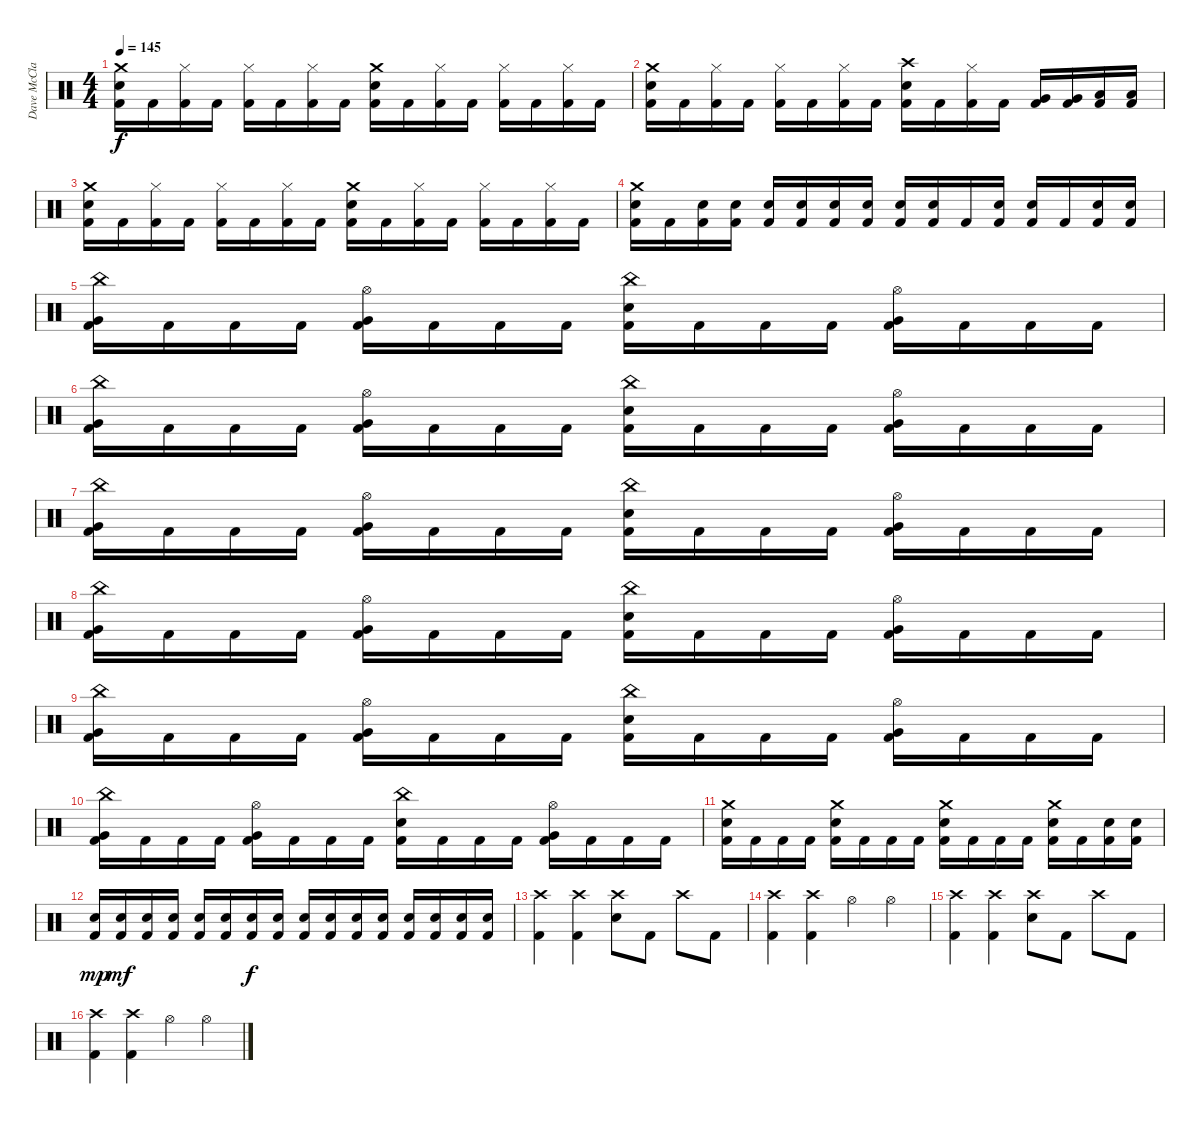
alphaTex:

\track ("Dave McClain" "Dave McCla") {instrument percussion}
\staff {score}
\articulation defaults
\ts (4 4)
\tempo 145
\clef neutral
\ks c
("Crash medium (hit)" "Snare (hit) 2" "Kick (hit) 2").16{dy f} "Kick (hit) 2".16 ("Hi-Hat (closed)" "Kick (hit) 2").16 "Kick (hit) 2".16 ("Hi-Hat (closed)" "Kick (hit) 2").16 "Kick (hit) 2".16 ("Hi-Hat (closed)" "Kick (hit) 2").16 "Kick (hit) 2".16 ("Crash medium (hit)" "Snare (hit) 2" "Kick (hit) 2").16 "Kick (hit) 2".16 ("Hi-Hat (closed)" "Kick (hit) 2").16 "Kick (hit) 2".16 ("Hi-Hat (closed)" "Kick (hit) 2").16 "Kick (hit) 2".16 ("Hi-Hat (closed)" "Kick (hit) 2").16 "Kick (hit) 2".16 |
("Crash medium (hit)" "Snare (hit) 2" "Kick (hit) 2").16 "Kick (hit) 2".16 ("Hi-Hat (closed)" "Kick (hit) 2").16 "Kick (hit) 2".16 ("Hi-Hat (closed)" "Kick (hit) 2").16 "Kick (hit) 2".16 ("Hi-Hat (closed)" "Kick (hit) 2").16 "Kick (hit) 2".16 ("Crash high (hit)" "Snare (hit) 2" "Kick (hit) 2").16 "Kick (hit) 2".16 ("Hi-Hat (closed)" "Kick (hit) 2").16 "Kick (hit) 2".16 ("Very Low Tom (hit)" "Kick (hit) 2").16 ("Very Low Tom (hit)" "Kick (hit) 2").16 ("Low Floor Tom (hit)" "Kick (hit) 2").16 ("Low Floor Tom (hit)" "Kick (hit) 2").16 |
("Crash medium (hit)" "Snare (hit) 2" "Kick (hit) 2").16 "Kick (hit) 2".16 ("Hi-Hat (closed)" "Kick (hit) 2").16 "Kick (hit) 2".16 ("Hi-Hat (closed)" "Kick (hit) 2").16 "Kick (hit) 2".16 ("Hi-Hat (closed)" "Kick (hit) 2").16 "Kick (hit) 2".16 ("Crash medium (hit)" "Snare (hit) 2" "Kick (hit) 2").16 "Kick (hit) 2".16 ("Hi-Hat (closed)" "Kick (hit) 2").16 "Kick (hit) 2".16 ("Hi-Hat (closed)" "Kick (hit) 2").16 "Kick (hit) 2".16 ("Hi-Hat (closed)" "Kick (hit) 2").16 "Kick (hit) 2".16 |
("Crash medium (hit)" "Snare (hit) 2" "Kick (hit) 2").16 "Kick (hit) 2".16 ("Snare (hit) 2" "Kick (hit) 2").16 ("Snare (hit) 2" "Kick (hit) 2").16 ("Snare (hit) 2" "Kick (hit) 2").16 ("Snare (hit) 2" "Kick (hit) 2").16 ("Snare (hit) 2" "Kick (hit) 2").16 ("Snare (hit) 2" "Kick (hit) 2").16 ("Snare (hit) 2" "Kick (hit) 2").16 ("Electric Snare (hit)" "Kick (hit) 2").16 "Kick (hit) 2".16 ("Electric Snare (hit)" "Kick (hit) 2").16 ("Snare (hit) 2" "Kick (hit) 2").16 "Kick (hit) 2".16 ("Snare (hit) 2" "Kick (hit) 2").16 ("Snare (hit) 2" "Kick (hit) 2").16 |
("China (hit)" "Very Low Tom (hit)" "Kick (hit) 2").16 "Kick (hit) 2".16 "Kick (hit) 2".16 "Kick (hit) 2".16 ("Hi-Hat (open)" "Very Low Tom (hit)" "Kick (hit) 2").16 "Kick (hit) 2".16 "Kick (hit) 2".16 "Kick (hit) 2".16 ("China (hit)" "Snare (hit) 2" "Kick (hit) 2").16 "Kick (hit) 2".16 "Kick (hit) 2".16 "Kick (hit) 2".16 ("Hi-Hat (open)" "Very Low Tom (hit)" "Kick (hit) 2").16 "Kick (hit) 2".16 "Kick (hit) 2".16 "Kick (hit) 2".16 |
("China (hit)" "Very Low Tom (hit)" "Kick (hit) 2").16 "Kick (hit) 2".16 "Kick (hit) 2".16 "Kick (hit) 2".16 ("Hi-Hat (open)" "Very Low Tom (hit)" "Kick (hit) 2").16 "Kick (hit) 2".16 "Kick (hit) 2".16 "Kick (hit) 2".16 ("China (hit)" "Snare (hit) 2" "Kick (hit) 2").16 "Kick (hit) 2".16 "Kick (hit) 2".16 "Kick (hit) 2".16 ("Hi-Hat (open)" "Very Low Tom (hit)" "Kick (hit) 2").16 "Kick (hit) 2".16 "Kick (hit) 2".16 "Kick (hit) 2".16 |
("China (hit)" "Very Low Tom (hit)" "Kick (hit) 2").16 "Kick (hit) 2".16 "Kick (hit) 2".16 "Kick (hit) 2".16 ("Hi-Hat (open)" "Very Low Tom (hit)" "Kick (hit) 2").16 "Kick (hit) 2".16 "Kick (hit) 2".16 "Kick (hit) 2".16 ("China (hit)" "Snare (hit) 2" "Kick (hit) 2").16 "Kick (hit) 2".16 "Kick (hit) 2".16 "Kick (hit) 2".16 ("Hi-Hat (open)" "Very Low Tom (hit)" "Kick (hit) 2").16 "Kick (hit) 2".16 "Kick (hit) 2".16 "Kick (hit) 2".16 |
("China (hit)" "Very Low Tom (hit)" "Kick (hit) 2").16 "Kick (hit) 2".16 "Kick (hit) 2".16 "Kick (hit) 2".16 ("Hi-Hat (open)" "Very Low Tom (hit)" "Kick (hit) 2").16 "Kick (hit) 2".16 "Kick (hit) 2".16 "Kick (hit) 2".16 ("China (hit)" "Snare (hit) 2" "Kick (hit) 2").16 "Kick (hit) 2".16 "Kick (hit) 2".16 "Kick (hit) 2".16 ("Hi-Hat (open)" "Very Low Tom (hit)" "Kick (hit) 2").16 "Kick (hit) 2".16 "Kick (hit) 2".16 "Kick (hit) 2".16 |
("China (hit)" "Very Low Tom (hit)" "Kick (hit) 2").16 "Kick (hit) 2".16 "Kick (hit) 2".16 "Kick (hit) 2".16 ("Hi-Hat (open)" "Very Low Tom (hit)" "Kick (hit) 2").16 "Kick (hit) 2".16 "Kick (hit) 2".16 "Kick (hit) 2".16 ("China (hit)" "Snare (hit) 2" "Kick (hit) 2").16 "Kick (hit) 2".16 "Kick (hit) 2".16 "Kick (hit) 2".16 ("Hi-Hat (open)" "Very Low Tom (hit)" "Kick (hit) 2").16 "Kick (hit) 2".16 "Kick (hit) 2".16 "Kick (hit) 2".16 |
("China (hit)" "Very Low Tom (hit)" "Kick (hit) 2").16 "Kick (hit) 2".16 "Kick (hit) 2".16 "Kick (hit) 2".16 ("Hi-Hat (open)" "Very Low Tom (hit)" "Kick (hit) 2").16 "Kick (hit) 2".16 "Kick (hit) 2".16 "Kick (hit) 2".16 ("China (hit)" "Snare (hit) 2" "Kick (hit) 2").16 "Kick (hit) 2".16 "Kick (hit) 2".16 "Kick (hit) 2".16 ("Hi-Hat (open)" "Very Low Tom (hit)" "Kick (hit) 2").16 "Kick (hit) 2".16 "Kick (hit) 2".16 "Kick (hit) 2".16 |
("Crash medium (hit)" "Snare (hit) 2" "Kick (hit) 2").16 "Kick (hit) 2".16 "Kick (hit) 2".16 "Kick (hit) 2".16 ("Crash medium (hit)" "Snare (hit) 2" "Kick (hit) 2").16 "Kick (hit) 2".16 "Kick (hit) 2".16 "Kick (hit) 2".16 ("Crash medium (hit)" "Snare (hit) 2" "Kick (hit) 2").16 "Kick (hit) 2".16 "Kick (hit) 2".16 "Kick (hit) 2".16 ("Crash medium (hit)" "Snare (hit) 2" "Kick (hit) 2").16 "Kick (hit) 2".16 ("Snare (hit) 2" "Kick (hit) 2").16 ("Snare (hit) 2" "Kick (hit) 2").16 |
("Electric Snare (hit)" "Kick (hit) 2").16{dy mp} ("Electric Snare (hit)" "Kick (hit) 2").16{dy mf} ("Electric Snare (hit)" "Kick (hit) 2").16 ("Electric Snare (hit)" "Kick (hit) 2").16 ("Electric Snare (hit)" "Kick (hit) 2").16 ("Snare (hit) 2" "Kick (hit) 2").16 ("Snare (hit) 2" "Kick (hit) 2").16{dy f} ("Snare (hit) 2" "Kick (hit) 2").16 ("Snare (hit) 2" "Kick (hit) 2").16 ("Electric Snare (hit)" "Kick (hit) 2").16 ("Electric Snare (hit)" "Kick (hit) 2").16 ("Electric Snare (hit)" "Kick (hit) 2").16 ("Electric Snare (hit)" "Kick (hit) 2").16 ("Snare (hit) 2" "Kick (hit) 2").16 ("Snare (hit) 2" "Kick (hit) 2").16 ("Snare (hit) 2" "Kick (hit) 2").16 |
("Crash high (hit)" "Kick (hit) 2").4 ("Crash high (hit)" "Kick (hit) 2").4 ("Crash high (hit)" "Snare (hit) 2").8 "Kick (hit) 2".8 "Crash high (hit)".8 "Kick (hit) 2".8 |
("Crash high (hit)" "Kick (hit) 2").4 ("Crash high (hit)" "Kick (hit) 2").4 "Hi-Hat (open)".4 "Hi-Hat (open)".4 |
("Crash high (hit)" "Kick (hit) 2").4 ("Crash high (hit)" "Kick (hit) 2").4 ("Crash high (hit)" "Snare (hit) 2").8 "Kick (hit) 2".8 "Crash high (hit)".8 "Kick (hit) 2".8 |
("Crash high (hit)" "Kick (hit) 2").4 ("Crash high (hit)" "Kick (hit) 2").4 "Hi-Hat (open)".4 "Hi-Hat (open)".4
